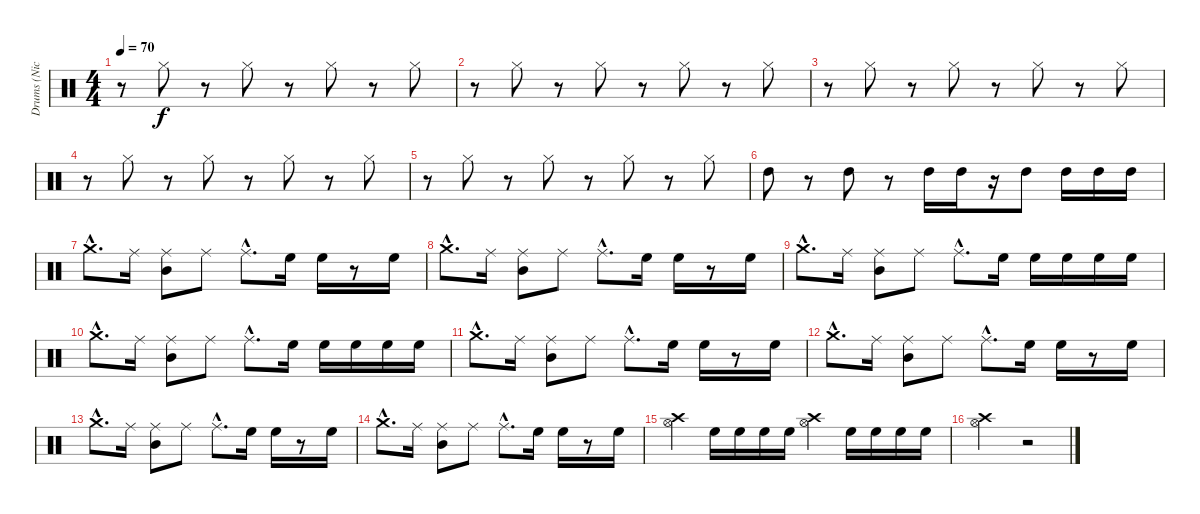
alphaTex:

\track ("Drums (Nick Mason)" "Drums (Nic") {instrument percussion}
\staff {score}
\articulation defaults
\ts (4 4)
\tempo 70
\clef neutral
\ks c
r.8{dy f} "Hi-Hat (closed)".8 r.8 "Hi-Hat (closed)".8 r.8 "Hi-Hat (closed)".8 r.8 "Hi-Hat (closed)".8 |
r.8 "Hi-Hat (closed)".8 r.8 "Hi-Hat (closed)".8 r.8 "Hi-Hat (closed)".8 r.8 "Hi-Hat (closed)".8 |
r.8 "Hi-Hat (closed)".8 r.8 "Hi-Hat (closed)".8 r.8 "Hi-Hat (closed)".8 r.8 "Hi-Hat (closed)".8 |
r.8 "Hi-Hat (closed)".8 r.8 "Hi-Hat (closed)".8 r.8 "Hi-Hat (closed)".8 r.8 "Hi-Hat (closed)".8 |
r.8 "Hi-Hat (closed)".8 r.8 "Hi-Hat (closed)".8 r.8 "Hi-Hat (closed)".8 r.8 "Hi-Hat (closed)".8 |
"High Tom (hit)".8 r.8 "High Tom (hit)".8 r.8 "High Tom (hit)".16 "High Tom (hit)".16 r.16 "High Tom (hit)".8 "High Tom (hit)".16 "High Tom (hit)".16 "High Tom (hit)".16 |
"Crash medium (hit)"{hac}.8{d} "Ride (middle)".16 ("Ride (middle)" "Mid Tom (hit)").8 "Ride (middle)".8 "Ride (middle)"{hac}.8{d} "High Floor Tom (hit)".16 "High Floor Tom (hit)".16 r.8 "High Floor Tom (hit)".16 |
"Crash medium (hit)"{hac}.8{d} "Ride (middle)".16 ("Ride (middle)" "Mid Tom (hit)").8 "Ride (middle)".8 "Ride (middle)"{hac}.8{d} "High Floor Tom (hit)".16 "High Floor Tom (hit)".16 r.8 "High Floor Tom (hit)".16 |
"Crash medium (hit)"{hac}.8{d} "Ride (middle)".16 ("Ride (middle)" "Mid Tom (hit)").8 "Ride (middle)".8 "Ride (middle)"{hac}.8{d} "High Floor Tom (hit)".16 "High Floor Tom (hit)".16 "High Floor Tom (hit)".16 "High Floor Tom (hit)".16 "High Floor Tom (hit)".16 |
"Crash medium (hit)"{hac}.8{d} "Ride (middle)".16 ("Ride (middle)" "Mid Tom (hit)").8 "Ride (middle)".8 "Ride (middle)"{hac}.8{d} "High Floor Tom (hit)".16 "High Floor Tom (hit)".16 "High Floor Tom (hit)".16 "High Floor Tom (hit)".16 "High Floor Tom (hit)".16 |
"Crash medium (hit)"{hac}.8{d} "Ride (middle)".16 ("Ride (middle)" "Mid Tom (hit)").8 "Ride (middle)".8 "Ride (middle)"{hac}.8{d} "High Floor Tom (hit)".16 "High Floor Tom (hit)".16 r.8 "High Floor Tom (hit)".16 |
"Crash medium (hit)"{hac}.8{d} "Ride (middle)".16 ("Ride (middle)" "Mid Tom (hit)").8 "Ride (middle)".8 "Ride (middle)"{hac}.8{d} "High Floor Tom (hit)".16 "High Floor Tom (hit)".16 r.8 "High Floor Tom (hit)".16 |
"Crash medium (hit)"{hac}.8{d} "Ride (middle)".16 ("Ride (middle)" "Mid Tom (hit)").8 "Ride (middle)".8 "Ride (middle)"{hac}.8{d} "High Floor Tom (hit)".16 "High Floor Tom (hit)".16 r.8 "High Floor Tom (hit)".16 |
"Crash medium (hit)"{hac}.8{d} "Ride (middle)".16 ("Ride (middle)" "Mid Tom (hit)").8 "Ride (middle)".8 "Ride (middle)"{hac}.8{d} "High Floor Tom (hit)".16 "High Floor Tom (hit)".16 r.8 "High Floor Tom (hit)".16 |
("Crash high (hit)" "Hi-Hat (open)").4 "High Floor Tom (hit)".16 "High Floor Tom (hit)".16 "High Floor Tom (hit)".16 "High Floor Tom (hit)".16 ("Crash high (hit)" "Hi-Hat (open)").4 "High Floor Tom (hit)".16 "High Floor Tom (hit)".16 "High Floor Tom (hit)".16 "High Floor Tom (hit)".16 |
("Crash high (hit)" "Hi-Hat (open)").2 r.2
